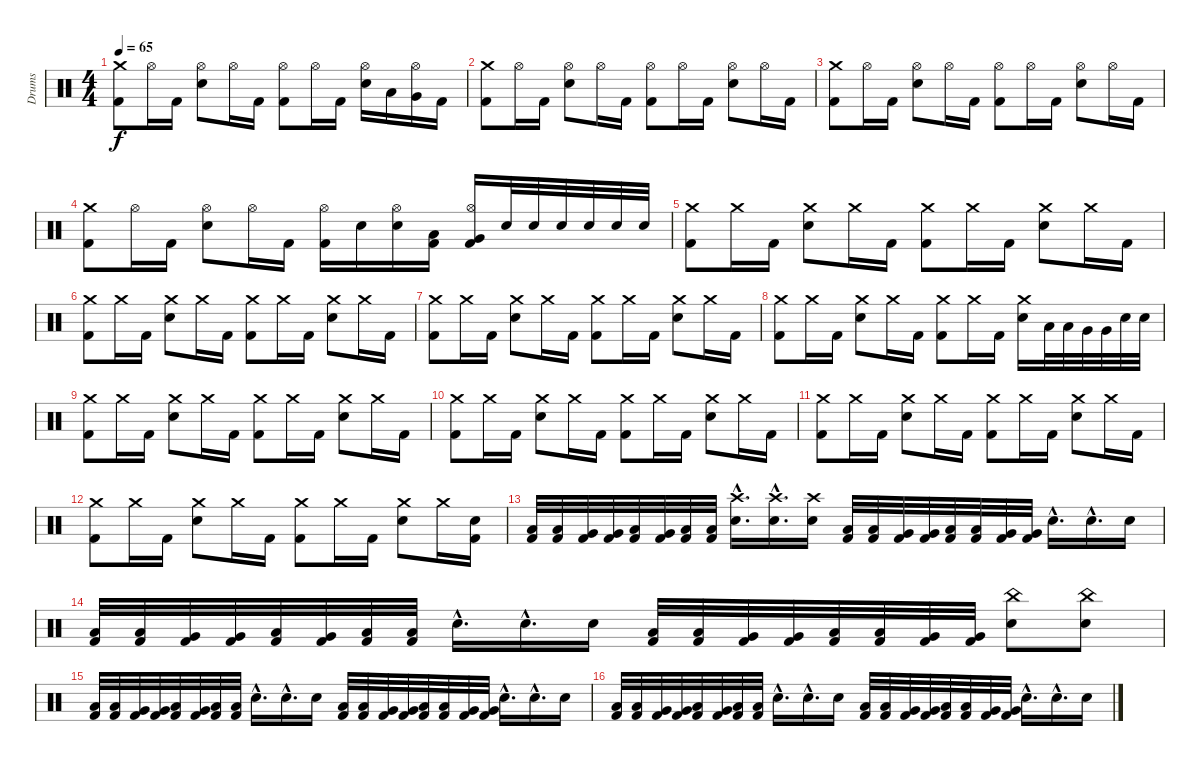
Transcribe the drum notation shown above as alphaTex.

\track ("Drums" "Drums") {instrument percussion}
\staff {score}
\articulation defaults
\ts (4 4)
\tempo 65
\clef neutral
\ks c
("Crash medium (hit)" "Kick (hit) 2").8{dy f} "Hi-Hat (open)".16 "Kick (hit) 2".16 ("Hi-Hat (open)" "Electric Snare (hit)").8 "Hi-Hat (open)".16 "Kick (hit) 2".16 ("Hi-Hat (open)" "Kick (hit) 2").8 "Hi-Hat (open)".16 "Kick (hit) 2".16 ("Hi-Hat (open)" "Electric Snare (hit)").16 "Low Tom (hit)".16 ("Hi-Hat (open)" "Very Low Tom (hit)").16 "Kick (hit) 2".16 |
("Crash medium (hit)" "Kick (hit) 2").8 "Hi-Hat (open)".16 "Kick (hit) 2".16 ("Hi-Hat (open)" "Electric Snare (hit)").8 "Hi-Hat (open)".16 "Kick (hit) 2".16 ("Hi-Hat (open)" "Kick (hit) 2").8 "Hi-Hat (open)".16 "Kick (hit) 2".16 ("Hi-Hat (open)" "Electric Snare (hit)").8 "Hi-Hat (open)".16 "Kick (hit) 2".16 |
("Crash medium (hit)" "Kick (hit) 2").8 "Hi-Hat (open)".16 "Kick (hit) 2".16 ("Hi-Hat (open)" "Electric Snare (hit)").8 "Hi-Hat (open)".16 "Kick (hit) 2".16 ("Hi-Hat (open)" "Kick (hit) 2").8 "Hi-Hat (open)".16 "Kick (hit) 2".16 ("Hi-Hat (open)" "Electric Snare (hit)").8 "Hi-Hat (open)".16 "Kick (hit) 2".16 |
("Crash medium (hit)" "Kick (hit) 2").8 "Hi-Hat (open)".16 "Kick (hit) 2".16 ("Hi-Hat (open)" "Electric Snare (hit)").8 "Hi-Hat (open)".16 "Kick (hit) 2".16 ("Hi-Hat (open)" "Kick (hit) 2").16 "Electric Snare (hit)".16 ("Hi-Hat (open)" "Electric Snare (hit)").16 ("Low Tom (hit)" "Kick (hit) 2").16 ("Hi-Hat (open)" "Very Low Tom (hit)" "Kick (hit) 2").16 "Electric Snare (hit)".32 "Electric Snare (hit)".32 "Electric Snare (hit)".32 "Electric Snare (hit)".32 "Electric Snare (hit)".32 "Electric Snare (hit)".32 |
("Crash medium (hit)" "Kick (hit) 2").8 "Crash medium (hit)".16 "Kick (hit) 2".16 ("Crash medium (hit)" "Electric Snare (hit)").8 "Crash medium (hit)".16 "Kick (hit) 2".16 ("Crash medium (hit)" "Kick (hit) 2").8 "Crash medium (hit)".16 "Kick (hit) 2".16 ("Crash medium (hit)" "Electric Snare (hit)").8 "Crash medium (hit)".16 "Kick (hit) 2".16 |
("Crash medium (hit)" "Kick (hit) 2").8 "Crash medium (hit)".16 "Kick (hit) 2".16 ("Crash medium (hit)" "Electric Snare (hit)").8 "Crash medium (hit)".16 "Kick (hit) 2".16 ("Crash medium (hit)" "Kick (hit) 2").8 "Crash medium (hit)".16 "Kick (hit) 2".16 ("Crash medium (hit)" "Electric Snare (hit)").8 "Crash medium (hit)".16 "Kick (hit) 2".16 |
("Crash medium (hit)" "Kick (hit) 2").8 "Crash medium (hit)".16 "Kick (hit) 2".16 ("Crash medium (hit)" "Electric Snare (hit)").8 "Crash medium (hit)".16 "Kick (hit) 2".16 ("Crash medium (hit)" "Kick (hit) 2").8 "Crash medium (hit)".16 "Kick (hit) 2".16 ("Crash medium (hit)" "Electric Snare (hit)").8 "Crash medium (hit)".16 "Kick (hit) 2".16 |
("Crash medium (hit)" "Kick (hit) 2").8 "Crash medium (hit)".16 "Kick (hit) 2".16 ("Crash medium (hit)" "Electric Snare (hit)").8 "Crash medium (hit)".16 "Kick (hit) 2".16 ("Crash medium (hit)" "Kick (hit) 2").8 "Crash medium (hit)".16 "Kick (hit) 2".16 ("Crash medium (hit)" "Electric Snare (hit)").16 "Low Tom (hit)".32 "Low Tom (hit)".32 "Very Low Tom (hit)".32 "Very Low Tom (hit)".32 "Electric Snare (hit)".32 "Electric Snare (hit)".32 |
("Crash medium (hit)" "Kick (hit) 2").8 "Crash medium (hit)".16 "Kick (hit) 2".16 ("Crash medium (hit)" "Electric Snare (hit)").8 "Crash medium (hit)".16 "Kick (hit) 2".16 ("Crash medium (hit)" "Kick (hit) 2").8 "Crash medium (hit)".16 "Kick (hit) 2".16 ("Crash medium (hit)" "Electric Snare (hit)").8 "Crash medium (hit)".16 "Kick (hit) 2".16 |
("Crash medium (hit)" "Kick (hit) 2").8 "Crash medium (hit)".16 "Kick (hit) 2".16 ("Crash medium (hit)" "Electric Snare (hit)").8 "Crash medium (hit)".16 "Kick (hit) 2".16 ("Crash medium (hit)" "Kick (hit) 2").8 "Crash medium (hit)".16 "Kick (hit) 2".16 ("Crash medium (hit)" "Electric Snare (hit)").8 "Crash medium (hit)".16 "Kick (hit) 2".16 |
("Crash medium (hit)" "Kick (hit) 2").8 "Crash medium (hit)".16 "Kick (hit) 2".16 ("Crash medium (hit)" "Electric Snare (hit)").8 "Crash medium (hit)".16 "Kick (hit) 2".16 ("Crash medium (hit)" "Kick (hit) 2").8 "Crash medium (hit)".16 "Kick (hit) 2".16 ("Crash medium (hit)" "Electric Snare (hit)").8 "Crash medium (hit)".16 "Kick (hit) 2".16 |
("Crash medium (hit)" "Kick (hit) 2").8 "Crash medium (hit)".16 "Kick (hit) 2".16 ("Crash medium (hit)" "Electric Snare (hit)").8 "Crash medium (hit)".16 "Kick (hit) 2".16 ("Crash medium (hit)" "Kick (hit) 2").8 "Crash medium (hit)".16 "Kick (hit) 2".16 ("Crash medium (hit)" "Electric Snare (hit)").8 "Crash medium (hit)".16 ("Electric Snare (hit)" "Kick (hit) 2").16 |
("Low Tom (hit)" "Kick (hit) 2").32 ("Low Tom (hit)" "Kick (hit) 2").32 ("Very Low Tom (hit)" "Kick (hit) 2").32 ("Very Low Tom (hit)" "Kick (hit) 2").32 ("Low Tom (hit)" "Kick (hit) 2").32 ("Very Low Tom (hit)" "Kick (hit) 2").32 ("Low Tom (hit)" "Kick (hit) 2").32 ("Low Tom (hit)" "Kick (hit) 2").32 ("Crash high (hit)"{hac} "Electric Snare (hit)"{hac}).16{d} ("Crash high (hit)"{hac} "Electric Snare (hit)"{hac}).16{d} ("Crash high (hit)" "Electric Snare (hit)").16 ("Low Tom (hit)" "Kick (hit) 2").32 ("Low Tom (hit)" "Kick (hit) 2").32 ("Very Low Tom (hit)" "Kick (hit) 2").32 ("Very Low Tom (hit)" "Kick (hit) 2").32 ("Low Tom (hit)" "Kick (hit) 2").32 ("Low Tom (hit)" "Kick (hit) 2").32 ("Very Low Tom (hit)" "Kick (hit) 2").32 ("Very Low Tom (hit)" "Kick (hit) 2").32 "Electric Snare (hit)"{hac}.16{d} "Electric Snare (hit)"{hac}.16{d} "Electric Snare (hit)".16 |
("Low Tom (hit)" "Kick (hit) 2").32 ("Low Tom (hit)" "Kick (hit) 2").32 ("Very Low Tom (hit)" "Kick (hit) 2").32 ("Very Low Tom (hit)" "Kick (hit) 2").32 ("Low Tom (hit)" "Kick (hit) 2").32 ("Very Low Tom (hit)" "Kick (hit) 2").32 ("Low Tom (hit)" "Kick (hit) 2").32 ("Low Tom (hit)" "Kick (hit) 2").32 "Electric Snare (hit)"{hac}.16{d} "Electric Snare (hit)"{hac}.16{d} "Electric Snare (hit)".16 ("Low Tom (hit)" "Kick (hit) 2").32 ("Low Tom (hit)" "Kick (hit) 2").32 ("Very Low Tom (hit)" "Kick (hit) 2").32 ("Very Low Tom (hit)" "Kick (hit) 2").32 ("Low Tom (hit)" "Kick (hit) 2").32 ("Low Tom (hit)" "Kick (hit) 2").32 ("Very Low Tom (hit)" "Kick (hit) 2").32 ("Very Low Tom (hit)" "Kick (hit) 2").32 ("China (hit)" "Electric Snare (hit)").8 ("China (hit)" "Electric Snare (hit)").8 |
("Low Tom (hit)" "Kick (hit) 2").32 ("Low Tom (hit)" "Kick (hit) 2").32 ("Very Low Tom (hit)" "Kick (hit) 2").32 ("Very Low Tom (hit)" "Kick (hit) 2").32 ("Low Tom (hit)" "Kick (hit) 2").32 ("Very Low Tom (hit)" "Kick (hit) 2").32 ("Low Tom (hit)" "Kick (hit) 2").32 ("Low Tom (hit)" "Kick (hit) 2").32 "Electric Snare (hit)"{hac}.16{d} "Electric Snare (hit)"{hac}.16{d} "Electric Snare (hit)".16 ("Low Tom (hit)" "Kick (hit) 2").32 ("Low Tom (hit)" "Kick (hit) 2").32 ("Very Low Tom (hit)" "Kick (hit) 2").32 ("Very Low Tom (hit)" "Kick (hit) 2").32 ("Low Tom (hit)" "Kick (hit) 2").32 ("Low Tom (hit)" "Kick (hit) 2").32 ("Very Low Tom (hit)" "Kick (hit) 2").32 ("Very Low Tom (hit)" "Kick (hit) 2").32 "Electric Snare (hit)"{hac}.16{d} "Electric Snare (hit)"{hac}.16{d} "Electric Snare (hit)".16 |
("Low Tom (hit)" "Kick (hit) 2").32 ("Low Tom (hit)" "Kick (hit) 2").32 ("Very Low Tom (hit)" "Kick (hit) 2").32 ("Very Low Tom (hit)" "Kick (hit) 2").32 ("Low Tom (hit)" "Kick (hit) 2").32 ("Very Low Tom (hit)" "Kick (hit) 2").32 ("Low Tom (hit)" "Kick (hit) 2").32 ("Low Tom (hit)" "Kick (hit) 2").32 "Electric Snare (hit)"{hac}.16{d} "Electric Snare (hit)"{hac}.16{d} "Electric Snare (hit)".16 ("Low Tom (hit)" "Kick (hit) 2").32 ("Low Tom (hit)" "Kick (hit) 2").32 ("Very Low Tom (hit)" "Kick (hit) 2").32 ("Very Low Tom (hit)" "Kick (hit) 2").32 ("Low Tom (hit)" "Kick (hit) 2").32 ("Low Tom (hit)" "Kick (hit) 2").32 ("Very Low Tom (hit)" "Kick (hit) 2").32 ("Very Low Tom (hit)" "Kick (hit) 2").32 "Electric Snare (hit)"{hac}.16{d} "Electric Snare (hit)"{hac}.16{d} "Electric Snare (hit)".16
